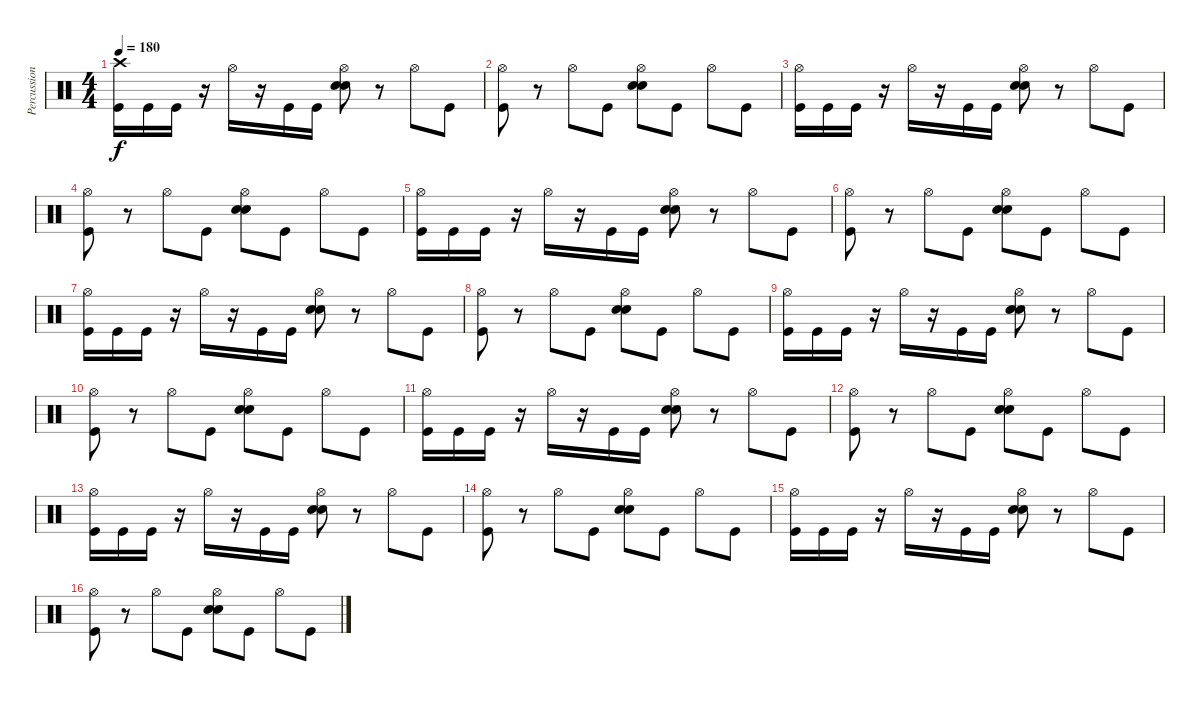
\track ("Percussion" "Percussion") {instrument percussion}
\staff {score}
\articulation defaults
\ts (4 4)
\tempo 180
\clef neutral
\ks c
("Crash high (hit)" "Kick (hit)").16{dy f} "Kick (hit)".16 "Kick (hit)".16 r.16 "Hi-Hat (open)".16 r.16 "Kick (hit)".16 "Kick (hit)".16 ("Hi-Hat (open)" "Snare (hit) 2" "Electric Snare (hit)").8 r.8 "Hi-Hat (open)".8 "Kick (hit)".8 |
("Hi-Hat (open)" "Kick (hit)").8 r.8 "Hi-Hat (open)".8 "Kick (hit)".8 ("Hi-Hat (open)" "Snare (hit) 2" "Electric Snare (hit)").8 "Kick (hit)".8 "Hi-Hat (open)".8 "Kick (hit)".8 |
("Hi-Hat (open)" "Kick (hit)").16 "Kick (hit)".16 "Kick (hit)".16 r.16 "Hi-Hat (open)".16 r.16 "Kick (hit)".16 "Kick (hit)".16 ("Hi-Hat (open)" "Snare (hit) 2" "Electric Snare (hit)").8 r.8 "Hi-Hat (open)".8 "Kick (hit)".8 |
("Hi-Hat (open)" "Kick (hit)").8 r.8 "Hi-Hat (open)".8 "Kick (hit)".8 ("Hi-Hat (open)" "Snare (hit) 2" "Electric Snare (hit)").8 "Kick (hit)".8 "Hi-Hat (open)".8 "Kick (hit)".8 |
("Hi-Hat (open)" "Kick (hit)").16 "Kick (hit)".16 "Kick (hit)".16 r.16 "Hi-Hat (open)".16 r.16 "Kick (hit)".16 "Kick (hit)".16 ("Hi-Hat (open)" "Snare (hit) 2" "Electric Snare (hit)").8 r.8 "Hi-Hat (open)".8 "Kick (hit)".8 |
("Hi-Hat (open)" "Kick (hit)").8 r.8 "Hi-Hat (open)".8 "Kick (hit)".8 ("Hi-Hat (open)" "Snare (hit) 2" "Electric Snare (hit)").8 "Kick (hit)".8 "Hi-Hat (open)".8 "Kick (hit)".8 |
("Hi-Hat (open)" "Kick (hit)").16 "Kick (hit)".16 "Kick (hit)".16 r.16 "Hi-Hat (open)".16 r.16 "Kick (hit)".16 "Kick (hit)".16 ("Hi-Hat (open)" "Snare (hit) 2" "Electric Snare (hit)").8 r.8 "Hi-Hat (open)".8 "Kick (hit)".8 |
("Hi-Hat (open)" "Kick (hit)").8 r.8 "Hi-Hat (open)".8 "Kick (hit)".8 ("Hi-Hat (open)" "Snare (hit) 2" "Electric Snare (hit)").8 "Kick (hit)".8 "Hi-Hat (open)".8 "Kick (hit)".8 |
("Hi-Hat (open)" "Kick (hit)").16 "Kick (hit)".16 "Kick (hit)".16 r.16 "Hi-Hat (open)".16 r.16 "Kick (hit)".16 "Kick (hit)".16 ("Hi-Hat (open)" "Snare (hit) 2" "Electric Snare (hit)").8 r.8 "Hi-Hat (open)".8 "Kick (hit)".8 |
("Hi-Hat (open)" "Kick (hit)").8 r.8 "Hi-Hat (open)".8 "Kick (hit)".8 ("Hi-Hat (open)" "Snare (hit) 2" "Electric Snare (hit)").8 "Kick (hit)".8 "Hi-Hat (open)".8 "Kick (hit)".8 |
("Hi-Hat (open)" "Kick (hit)").16 "Kick (hit)".16 "Kick (hit)".16 r.16 "Hi-Hat (open)".16 r.16 "Kick (hit)".16 "Kick (hit)".16 ("Hi-Hat (open)" "Snare (hit) 2" "Electric Snare (hit)").8 r.8 "Hi-Hat (open)".8 "Kick (hit)".8 |
("Hi-Hat (open)" "Kick (hit)").8 r.8 "Hi-Hat (open)".8 "Kick (hit)".8 ("Hi-Hat (open)" "Snare (hit) 2" "Electric Snare (hit)").8 "Kick (hit)".8 "Hi-Hat (open)".8 "Kick (hit)".8 |
("Hi-Hat (open)" "Kick (hit)").16 "Kick (hit)".16 "Kick (hit)".16 r.16 "Hi-Hat (open)".16 r.16 "Kick (hit)".16 "Kick (hit)".16 ("Hi-Hat (open)" "Snare (hit) 2" "Electric Snare (hit)").8 r.8 "Hi-Hat (open)".8 "Kick (hit)".8 |
("Hi-Hat (open)" "Kick (hit)").8 r.8 "Hi-Hat (open)".8 "Kick (hit)".8 ("Hi-Hat (open)" "Snare (hit) 2" "Electric Snare (hit)").8 "Kick (hit)".8 "Hi-Hat (open)".8 "Kick (hit)".8 |
("Hi-Hat (open)" "Kick (hit)").16 "Kick (hit)".16 "Kick (hit)".16 r.16 "Hi-Hat (open)".16 r.16 "Kick (hit)".16 "Kick (hit)".16 ("Hi-Hat (open)" "Snare (hit) 2" "Electric Snare (hit)").8 r.8 "Hi-Hat (open)".8 "Kick (hit)".8 |
("Hi-Hat (open)" "Kick (hit)").8 r.8 "Hi-Hat (open)".8 "Kick (hit)".8 ("Hi-Hat (open)" "Snare (hit) 2" "Electric Snare (hit)").8 "Kick (hit)".8 "Hi-Hat (open)".8 "Kick (hit)".8
